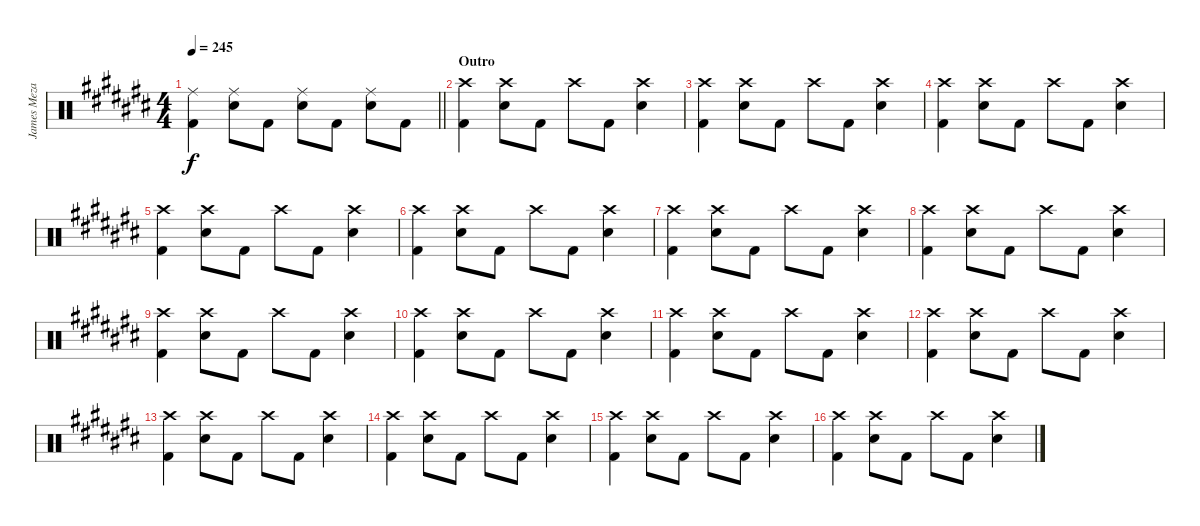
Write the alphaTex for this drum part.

\track ("James Meza" "James Meza") {instrument percussion}
\staff {score}
\articulation defaults
\ts (4 4)
\tempo 245
\clef neutral
\barLineRight lightlight
\ks c#
("Ride (middle)" "Kick (hit) 2").4{dy f} ("Ride (middle)" "Snare (hit) 2").8 "Kick (hit) 2".8 ("Ride (middle)" "Snare (hit) 2").8 "Kick (hit) 2".8 ("Ride (middle)" "Snare (hit) 2").8 "Kick (hit) 2".8 |
\section ("" "Outro")
("Crash high (hit)" "Kick (hit) 2").4 ("Crash high (hit)" "Snare (hit) 2").8 "Kick (hit) 2".8 "Crash high (hit)".8 "Kick (hit) 2".8 ("Crash high (hit)" "Snare (hit) 2").4 |
("Crash high (hit)" "Kick (hit) 2").4 ("Crash high (hit)" "Snare (hit) 2").8 "Kick (hit) 2".8 "Crash high (hit)".8 "Kick (hit) 2".8 ("Crash high (hit)" "Snare (hit) 2").4 |
("Crash high (hit)" "Kick (hit) 2").4 ("Crash high (hit)" "Snare (hit) 2").8 "Kick (hit) 2".8 "Crash high (hit)".8 "Kick (hit) 2".8 ("Crash high (hit)" "Snare (hit) 2").4 |
("Crash high (hit)" "Kick (hit) 2").4 ("Crash high (hit)" "Snare (hit) 2").8 "Kick (hit) 2".8 "Crash high (hit)".8 "Kick (hit) 2".8 ("Crash high (hit)" "Snare (hit) 2").4 |
("Crash high (hit)" "Kick (hit) 2").4 ("Crash high (hit)" "Snare (hit) 2").8 "Kick (hit) 2".8 "Crash high (hit)".8 "Kick (hit) 2".8 ("Crash high (hit)" "Snare (hit) 2").4 |
("Crash high (hit)" "Kick (hit) 2").4 ("Crash high (hit)" "Snare (hit) 2").8 "Kick (hit) 2".8 "Crash high (hit)".8 "Kick (hit) 2".8 ("Crash high (hit)" "Snare (hit) 2").4 |
("Crash high (hit)" "Kick (hit) 2").4 ("Crash high (hit)" "Snare (hit) 2").8 "Kick (hit) 2".8 "Crash high (hit)".8 "Kick (hit) 2".8 ("Crash high (hit)" "Snare (hit) 2").4 |
("Crash high (hit)" "Kick (hit) 2").4 ("Crash high (hit)" "Snare (hit) 2").8 "Kick (hit) 2".8 "Crash high (hit)".8 "Kick (hit) 2".8 ("Crash high (hit)" "Snare (hit) 2").4 |
("Crash high (hit)" "Kick (hit) 2").4 ("Crash high (hit)" "Snare (hit) 2").8 "Kick (hit) 2".8 "Crash high (hit)".8 "Kick (hit) 2".8 ("Crash high (hit)" "Snare (hit) 2").4 |
("Crash high (hit)" "Kick (hit) 2").4 ("Crash high (hit)" "Snare (hit) 2").8 "Kick (hit) 2".8 "Crash high (hit)".8 "Kick (hit) 2".8 ("Crash high (hit)" "Snare (hit) 2").4 |
("Crash high (hit)" "Kick (hit) 2").4 ("Crash high (hit)" "Snare (hit) 2").8 "Kick (hit) 2".8 "Crash high (hit)".8 "Kick (hit) 2".8 ("Crash high (hit)" "Snare (hit) 2").4 |
("Crash high (hit)" "Kick (hit) 2").4 ("Crash high (hit)" "Snare (hit) 2").8 "Kick (hit) 2".8 "Crash high (hit)".8 "Kick (hit) 2".8 ("Crash high (hit)" "Snare (hit) 2").4 |
("Crash high (hit)" "Kick (hit) 2").4 ("Crash high (hit)" "Snare (hit) 2").8 "Kick (hit) 2".8 "Crash high (hit)".8 "Kick (hit) 2".8 ("Crash high (hit)" "Snare (hit) 2").4 |
("Crash high (hit)" "Kick (hit) 2").4 ("Crash high (hit)" "Snare (hit) 2").8 "Kick (hit) 2".8 "Crash high (hit)".8 "Kick (hit) 2".8 ("Crash high (hit)" "Snare (hit) 2").4 |
("Crash high (hit)" "Kick (hit) 2").4 ("Crash high (hit)" "Snare (hit) 2").8 "Kick (hit) 2".8 "Crash high (hit)".8 "Kick (hit) 2".8 ("Crash high (hit)" "Snare (hit) 2").4
